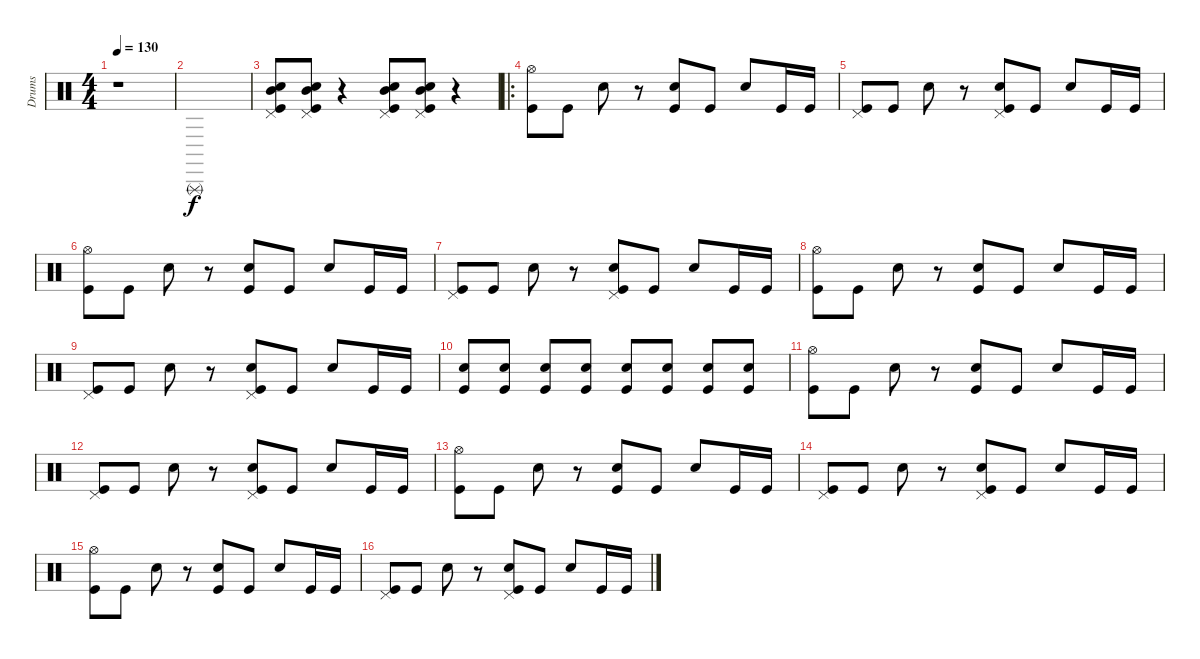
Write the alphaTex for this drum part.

\track ("Drums" "Drums") {instrument percussion}
\staff {score}
\articulation defaults
\ts (4 4)
\tempo 130
\clef neutral
\ks c
r.1{dy f} |
"Triangle (rnute)".1 |
("Pedal Hi-Hat (hit)" "Snare (hit) 2" "Mid Tom (hit)" "Kick (hit)").8 ("Pedal Hi-Hat (hit)" "Snare (hit) 2" "Mid Tom (hit)" "Kick (hit)").8 r.4 ("Pedal Hi-Hat (hit)" "Snare (hit) 2" "Mid Tom (hit)" "Kick (hit)").8 ("Pedal Hi-Hat (hit)" "Snare (hit) 2" "Mid Tom (hit)" "Kick (hit)").8 r.4 |
\ro
("Hi-Hat (open)" "Kick (hit)").8 "Kick (hit)".8 "Snare (hit) 2".8 r.8 ("Snare (hit) 2" "Kick (hit)").8 "Kick (hit)".8 "Snare (hit) 2".8 "Kick (hit)".16 "Kick (hit)".16 |
("Pedal Hi-Hat (hit)" "Kick (hit)").8 "Kick (hit)".8 "Snare (hit) 2".8 r.8 ("Pedal Hi-Hat (hit)" "Snare (hit) 2" "Kick (hit)").8 "Kick (hit)".8 "Snare (hit) 2".8 "Kick (hit)".16 "Kick (hit)".16 |
("Hi-Hat (open)" "Kick (hit)").8 "Kick (hit)".8 "Snare (hit) 2".8 r.8 ("Snare (hit) 2" "Kick (hit)").8 "Kick (hit)".8 "Snare (hit) 2".8 "Kick (hit)".16 "Kick (hit)".16 |
("Pedal Hi-Hat (hit)" "Kick (hit)").8 "Kick (hit)".8 "Snare (hit) 2".8 r.8 ("Pedal Hi-Hat (hit)" "Snare (hit) 2" "Kick (hit)").8 "Kick (hit)".8 "Snare (hit) 2".8 "Kick (hit)".16 "Kick (hit)".16 |
("Hi-Hat (open)" "Kick (hit)").8 "Kick (hit)".8 "Snare (hit) 2".8 r.8 ("Snare (hit) 2" "Kick (hit)").8 "Kick (hit)".8 "Snare (hit) 2".8 "Kick (hit)".16 "Kick (hit)".16 |
("Pedal Hi-Hat (hit)" "Kick (hit)").8 "Kick (hit)".8 "Snare (hit) 2".8 r.8 ("Pedal Hi-Hat (hit)" "Snare (hit) 2" "Kick (hit)").8 "Kick (hit)".8 "Snare (hit) 2".8 "Kick (hit)".16 "Kick (hit)".16 |
("Snare (hit) 2" "Kick (hit)").8 ("Snare (hit) 2" "Kick (hit)").8 ("Snare (hit) 2" "Kick (hit)").8 ("Snare (hit) 2" "Kick (hit)").8 ("Snare (hit) 2" "Kick (hit)").8 ("Snare (hit) 2" "Kick (hit)").8 ("Snare (hit) 2" "Kick (hit)").8 ("Snare (hit) 2" "Kick (hit)").8 |
("Hi-Hat (open)" "Kick (hit)").8 "Kick (hit)".8 "Snare (hit) 2".8 r.8 ("Snare (hit) 2" "Kick (hit)").8 "Kick (hit)".8 "Snare (hit) 2".8 "Kick (hit)".16 "Kick (hit)".16 |
("Pedal Hi-Hat (hit)" "Kick (hit)").8 "Kick (hit)".8 "Snare (hit) 2".8 r.8 ("Pedal Hi-Hat (hit)" "Snare (hit) 2" "Kick (hit)").8 "Kick (hit)".8 "Snare (hit) 2".8 "Kick (hit)".16 "Kick (hit)".16 |
("Hi-Hat (open)" "Kick (hit)").8 "Kick (hit)".8 "Snare (hit) 2".8 r.8 ("Snare (hit) 2" "Kick (hit)").8 "Kick (hit)".8 "Snare (hit) 2".8 "Kick (hit)".16 "Kick (hit)".16 |
("Pedal Hi-Hat (hit)" "Kick (hit)").8 "Kick (hit)".8 "Snare (hit) 2".8 r.8 ("Pedal Hi-Hat (hit)" "Snare (hit) 2" "Kick (hit)").8 "Kick (hit)".8 "Snare (hit) 2".8 "Kick (hit)".16 "Kick (hit)".16 |
("Hi-Hat (open)" "Kick (hit)").8 "Kick (hit)".8 "Snare (hit) 2".8 r.8 ("Snare (hit) 2" "Kick (hit)").8 "Kick (hit)".8 "Snare (hit) 2".8 "Kick (hit)".16 "Kick (hit)".16 |
("Pedal Hi-Hat (hit)" "Kick (hit)").8 "Kick (hit)".8 "Snare (hit) 2".8 r.8 ("Pedal Hi-Hat (hit)" "Snare (hit) 2" "Kick (hit)").8 "Kick (hit)".8 "Snare (hit) 2".8 "Kick (hit)".16 "Kick (hit)".16
